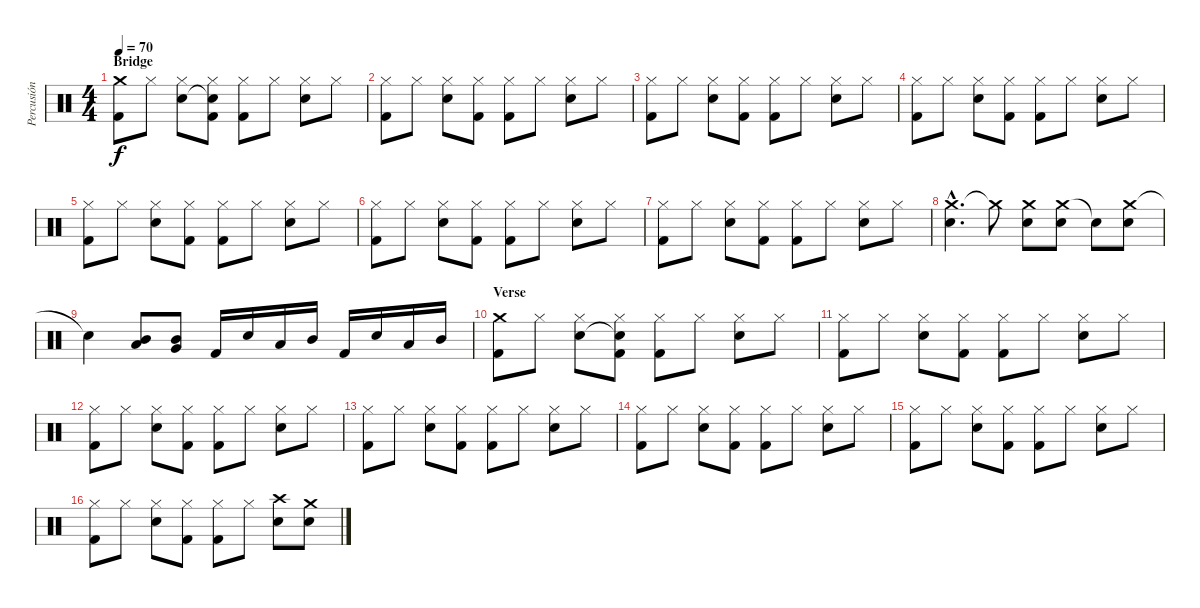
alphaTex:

\track ("Percusión" "Percusión") {instrument percussion}
\staff {score}
\articulation defaults
\ts (4 4)
\section ("" "Bridge")
\tempo 70
\clef neutral
\ks c
("Crash medium (hit)" "Kick (hit) 2").8{dy f} "Hi-Hat (closed)".8 ("Hi-Hat (closed)" "Snare (hit) 2").8 ("Hi-Hat (closed)" "Snare (hit)"{t} "Kick (hit) 2").8 ("Hi-Hat (closed)" "Kick (hit) 2").8 "Hi-Hat (closed)".8 ("Hi-Hat (closed)" "Snare (hit) 2").8 "Hi-Hat (closed)".8 |
("Hi-Hat (closed)" "Kick (hit) 2").8 "Hi-Hat (closed)".8 ("Hi-Hat (closed)" "Snare (hit) 2").8 ("Hi-Hat (closed)" "Kick (hit) 2").8 ("Hi-Hat (closed)" "Kick (hit) 2").8 "Hi-Hat (closed)".8 ("Hi-Hat (closed)" "Snare (hit) 2").8 "Hi-Hat (closed)".8 |
("Hi-Hat (closed)" "Kick (hit) 2").8 "Hi-Hat (closed)".8 ("Hi-Hat (closed)" "Snare (hit) 2").8 ("Hi-Hat (closed)" "Kick (hit) 2").8 ("Hi-Hat (closed)" "Kick (hit) 2").8 "Hi-Hat (closed)".8 ("Hi-Hat (closed)" "Snare (hit) 2").8 "Hi-Hat (closed)".8 |
("Hi-Hat (closed)" "Kick (hit) 2").8 "Hi-Hat (closed)".8 ("Hi-Hat (closed)" "Snare (hit) 2").8 ("Hi-Hat (closed)" "Kick (hit) 2").8 ("Hi-Hat (closed)" "Kick (hit) 2").8 "Hi-Hat (closed)".8 ("Hi-Hat (closed)" "Snare (hit) 2").8 "Hi-Hat (closed)".8 |
("Hi-Hat (closed)" "Kick (hit) 2").8 "Hi-Hat (closed)".8 ("Hi-Hat (closed)" "Snare (hit) 2").8 ("Hi-Hat (closed)" "Kick (hit) 2").8 ("Hi-Hat (closed)" "Kick (hit) 2").8 "Hi-Hat (closed)".8 ("Hi-Hat (closed)" "Snare (hit) 2").8 "Hi-Hat (closed)".8 |
("Hi-Hat (closed)" "Kick (hit) 2").8 "Hi-Hat (closed)".8 ("Hi-Hat (closed)" "Snare (hit) 2").8 ("Hi-Hat (closed)" "Kick (hit) 2").8 ("Hi-Hat (closed)" "Kick (hit) 2").8 "Hi-Hat (closed)".8 ("Hi-Hat (closed)" "Snare (hit) 2").8 "Hi-Hat (closed)".8 |
("Hi-Hat (closed)" "Kick (hit) 2").8 "Hi-Hat (closed)".8 ("Hi-Hat (closed)" "Snare (hit) 2").8 ("Hi-Hat (closed)" "Kick (hit) 2").8 ("Hi-Hat (closed)" "Kick (hit) 2").8 "Hi-Hat (closed)".8 ("Hi-Hat (closed)" "Snare (hit) 2").8 "Hi-Hat (closed)".8 |
("Crash medium (hit)"{hac} "Snare (hit) 2"{hac}).4{d} "Crash medium (hit)"{t}.8 ("Crash medium (hit)" "Snare (hit) 2").8 ("Crash medium (hit)" "Snare (hit) 2").8 "Snare (hit)"{t}.8 ("Crash medium (hit)" "Snare (hit) 2").8 |
"Snare (hit)"{t}.4 ("Mid Tom (hit)" "Low Tom (hit)").8 ("Mid Tom (hit)" "Very Low Tom (hit)").8 "Kick (hit) 2".16 "Snare (hit) 2".16 "Low Tom (hit)".16 "Mid Tom (hit)".16 "Kick (hit) 2".16 "Snare (hit) 2".16 "Low Tom (hit)".16 "Mid Tom (hit)".16 |
\section ("" "Verse")
("Crash medium (hit)" "Kick (hit) 2").8 "Hi-Hat (closed)".8 ("Hi-Hat (closed)" "Snare (hit) 2").8 ("Hi-Hat (closed)" "Snare (hit)"{t} "Kick (hit) 2").8 ("Hi-Hat (closed)" "Kick (hit) 2").8 "Hi-Hat (closed)".8 ("Hi-Hat (closed)" "Snare (hit) 2").8 "Hi-Hat (closed)".8 |
("Hi-Hat (closed)" "Kick (hit) 2").8 "Hi-Hat (closed)".8 ("Hi-Hat (closed)" "Snare (hit) 2").8 ("Hi-Hat (closed)" "Kick (hit) 2").8 ("Hi-Hat (closed)" "Kick (hit) 2").8 "Hi-Hat (closed)".8 ("Hi-Hat (closed)" "Snare (hit) 2").8 "Hi-Hat (closed)".8 |
("Hi-Hat (closed)" "Kick (hit) 2").8 "Hi-Hat (closed)".8 ("Hi-Hat (closed)" "Snare (hit) 2").8 ("Hi-Hat (closed)" "Kick (hit) 2").8 ("Hi-Hat (closed)" "Kick (hit) 2").8 "Hi-Hat (closed)".8 ("Hi-Hat (closed)" "Snare (hit) 2").8 "Hi-Hat (closed)".8 |
("Hi-Hat (closed)" "Kick (hit) 2").8 "Hi-Hat (closed)".8 ("Hi-Hat (closed)" "Snare (hit) 2").8 ("Hi-Hat (closed)" "Kick (hit) 2").8 ("Hi-Hat (closed)" "Kick (hit) 2").8 "Hi-Hat (closed)".8 ("Hi-Hat (closed)" "Snare (hit) 2").8 "Hi-Hat (closed)".8 |
("Hi-Hat (closed)" "Kick (hit) 2").8 "Hi-Hat (closed)".8 ("Hi-Hat (closed)" "Snare (hit) 2").8 ("Hi-Hat (closed)" "Kick (hit) 2").8 ("Hi-Hat (closed)" "Kick (hit) 2").8 "Hi-Hat (closed)".8 ("Hi-Hat (closed)" "Snare (hit) 2").8 "Hi-Hat (closed)".8 |
("Hi-Hat (closed)" "Kick (hit) 2").8 "Hi-Hat (closed)".8 ("Hi-Hat (closed)" "Snare (hit) 2").8 ("Hi-Hat (closed)" "Kick (hit) 2").8 ("Hi-Hat (closed)" "Kick (hit) 2").8 "Hi-Hat (closed)".8 ("Hi-Hat (closed)" "Snare (hit) 2").8 "Hi-Hat (closed)".8 |
("Hi-Hat (closed)" "Kick (hit) 2").8 "Hi-Hat (closed)".8 ("Hi-Hat (closed)" "Snare (hit) 2").8 ("Hi-Hat (closed)" "Kick (hit) 2").8 ("Hi-Hat (closed)" "Kick (hit) 2").8 "Hi-Hat (closed)".8 ("Crash high (hit)" "Snare (hit) 2").8 ("Crash medium (hit)" "Snare (hit) 2").8
